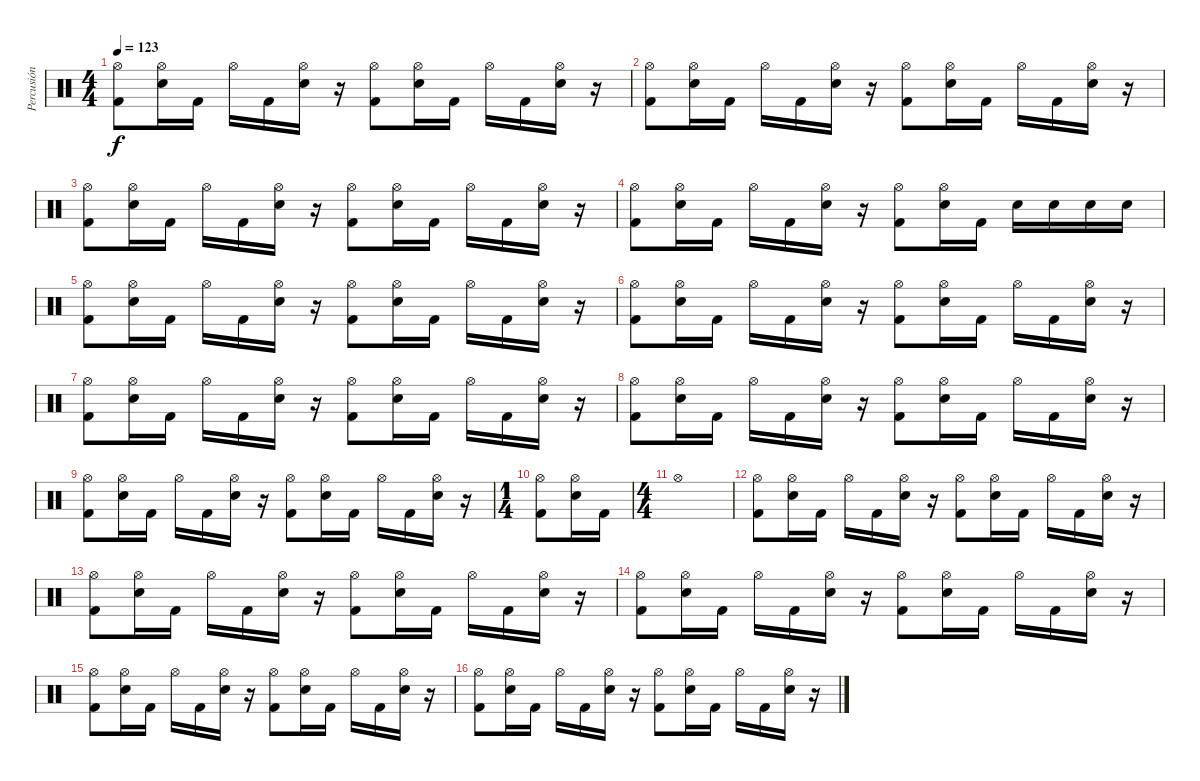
\track ("Percusión" "Percusión") {instrument percussion}
\staff {score}
\articulation defaults
\ts (4 4)
\tempo 123
\clef neutral
\ks c
("Hi-Hat (open)" "Kick (hit) 2").8{dy f} ("Hi-Hat (open)" "Snare (hit) 2").16 "Kick (hit) 2".16 "Hi-Hat (open)".16 "Kick (hit) 2".16 ("Hi-Hat (open)" "Snare (hit) 2").16 r.16 ("Hi-Hat (open)" "Kick (hit) 2").8 ("Hi-Hat (open)" "Snare (hit) 2").16 "Kick (hit) 2".16 "Hi-Hat (open)".16 "Kick (hit) 2".16 ("Hi-Hat (open)" "Snare (hit) 2").16 r.16 |
("Hi-Hat (open)" "Kick (hit) 2").8 ("Hi-Hat (open)" "Snare (hit) 2").16 "Kick (hit) 2".16 "Hi-Hat (open)".16 "Kick (hit) 2".16 ("Hi-Hat (open)" "Snare (hit) 2").16 r.16 ("Hi-Hat (open)" "Kick (hit) 2").8 ("Hi-Hat (open)" "Snare (hit) 2").16 "Kick (hit) 2".16 "Hi-Hat (open)".16 "Kick (hit) 2".16 ("Hi-Hat (open)" "Snare (hit) 2").16 r.16 |
("Hi-Hat (open)" "Kick (hit) 2").8 ("Hi-Hat (open)" "Snare (hit) 2").16 "Kick (hit) 2".16 "Hi-Hat (open)".16 "Kick (hit) 2".16 ("Hi-Hat (open)" "Snare (hit) 2").16 r.16 ("Hi-Hat (open)" "Kick (hit) 2").8 ("Hi-Hat (open)" "Snare (hit) 2").16 "Kick (hit) 2".16 "Hi-Hat (open)".16 "Kick (hit) 2".16 ("Hi-Hat (open)" "Snare (hit) 2").16 r.16 |
("Hi-Hat (open)" "Kick (hit) 2").8 ("Hi-Hat (open)" "Snare (hit) 2").16 "Kick (hit) 2".16 "Hi-Hat (open)".16 "Kick (hit) 2".16 ("Hi-Hat (open)" "Snare (hit) 2").16 r.16 ("Hi-Hat (open)" "Kick (hit) 2").8 ("Hi-Hat (open)" "Snare (hit) 2").16 "Kick (hit) 2".16 "Electric Snare (hit)".16 "Electric Snare (hit)".16 "Electric Snare (hit)".16 "Electric Snare (hit)".16 |
("Hi-Hat (open)" "Kick (hit) 2").8 ("Hi-Hat (open)" "Snare (hit) 2").16 "Kick (hit) 2".16 "Hi-Hat (open)".16 "Kick (hit) 2".16 ("Hi-Hat (open)" "Snare (hit) 2").16 r.16 ("Hi-Hat (open)" "Kick (hit) 2").8 ("Hi-Hat (open)" "Snare (hit) 2").16 "Kick (hit) 2".16 "Hi-Hat (open)".16 "Kick (hit) 2".16 ("Hi-Hat (open)" "Snare (hit) 2").16 r.16 |
("Hi-Hat (open)" "Kick (hit) 2").8 ("Hi-Hat (open)" "Snare (hit) 2").16 "Kick (hit) 2".16 "Hi-Hat (open)".16 "Kick (hit) 2".16 ("Hi-Hat (open)" "Snare (hit) 2").16 r.16 ("Hi-Hat (open)" "Kick (hit) 2").8 ("Hi-Hat (open)" "Snare (hit) 2").16 "Kick (hit) 2".16 "Hi-Hat (open)".16 "Kick (hit) 2".16 ("Hi-Hat (open)" "Snare (hit) 2").16 r.16 |
("Hi-Hat (open)" "Kick (hit) 2").8 ("Hi-Hat (open)" "Snare (hit) 2").16 "Kick (hit) 2".16 "Hi-Hat (open)".16 "Kick (hit) 2".16 ("Hi-Hat (open)" "Snare (hit) 2").16 r.16 ("Hi-Hat (open)" "Kick (hit) 2").8 ("Hi-Hat (open)" "Snare (hit) 2").16 "Kick (hit) 2".16 "Hi-Hat (open)".16 "Kick (hit) 2".16 ("Hi-Hat (open)" "Snare (hit) 2").16 r.16 |
("Hi-Hat (open)" "Kick (hit) 2").8 ("Hi-Hat (open)" "Snare (hit) 2").16 "Kick (hit) 2".16 "Hi-Hat (open)".16 "Kick (hit) 2".16 ("Hi-Hat (open)" "Snare (hit) 2").16 r.16 ("Hi-Hat (open)" "Kick (hit) 2").8 ("Hi-Hat (open)" "Snare (hit) 2").16 "Kick (hit) 2".16 "Hi-Hat (open)".16 "Kick (hit) 2".16 ("Hi-Hat (open)" "Snare (hit) 2").16 r.16 |
("Hi-Hat (open)" "Kick (hit) 2").8 ("Hi-Hat (open)" "Snare (hit) 2").16 "Kick (hit) 2".16 "Hi-Hat (open)".16 "Kick (hit) 2".16 ("Hi-Hat (open)" "Snare (hit) 2").16 r.16 ("Hi-Hat (open)" "Kick (hit) 2").8 ("Hi-Hat (open)" "Snare (hit) 2").16 "Kick (hit) 2".16 "Hi-Hat (open)".16 "Kick (hit) 2".16 ("Hi-Hat (open)" "Snare (hit) 2").16 r.16 |
\ts (1 4)
("Hi-Hat (open)" "Kick (hit) 2").8 ("Hi-Hat (open)" "Snare (hit) 2").16 "Kick (hit) 2".16 |
\ts (4 4)
"Hi-Hat (open)".1 |
("Hi-Hat (open)" "Kick (hit) 2").8 ("Hi-Hat (open)" "Snare (hit) 2").16 "Kick (hit) 2".16 "Hi-Hat (open)".16 "Kick (hit) 2".16 ("Hi-Hat (open)" "Snare (hit) 2").16 r.16 ("Hi-Hat (open)" "Kick (hit) 2").8 ("Hi-Hat (open)" "Snare (hit) 2").16 "Kick (hit) 2".16 "Hi-Hat (open)".16 "Kick (hit) 2".16 ("Hi-Hat (open)" "Snare (hit) 2").16 r.16 |
("Hi-Hat (open)" "Kick (hit) 2").8 ("Hi-Hat (open)" "Snare (hit) 2").16 "Kick (hit) 2".16 "Hi-Hat (open)".16 "Kick (hit) 2".16 ("Hi-Hat (open)" "Snare (hit) 2").16 r.16 ("Hi-Hat (open)" "Kick (hit) 2").8 ("Hi-Hat (open)" "Snare (hit) 2").16 "Kick (hit) 2".16 "Hi-Hat (open)".16 "Kick (hit) 2".16 ("Hi-Hat (open)" "Snare (hit) 2").16 r.16 |
("Hi-Hat (open)" "Kick (hit) 2").8 ("Hi-Hat (open)" "Snare (hit) 2").16 "Kick (hit) 2".16 "Hi-Hat (open)".16 "Kick (hit) 2".16 ("Hi-Hat (open)" "Snare (hit) 2").16 r.16 ("Hi-Hat (open)" "Kick (hit) 2").8 ("Hi-Hat (open)" "Snare (hit) 2").16 "Kick (hit) 2".16 "Hi-Hat (open)".16 "Kick (hit) 2".16 ("Hi-Hat (open)" "Snare (hit) 2").16 r.16 |
("Hi-Hat (open)" "Kick (hit) 2").8 ("Hi-Hat (open)" "Snare (hit) 2").16 "Kick (hit) 2".16 "Hi-Hat (open)".16 "Kick (hit) 2".16 ("Hi-Hat (open)" "Snare (hit) 2").16 r.16 ("Hi-Hat (open)" "Kick (hit) 2").8 ("Hi-Hat (open)" "Snare (hit) 2").16 "Kick (hit) 2".16 "Hi-Hat (open)".16 "Kick (hit) 2".16 ("Hi-Hat (open)" "Snare (hit) 2").16 r.16 |
("Hi-Hat (open)" "Kick (hit) 2").8 ("Hi-Hat (open)" "Snare (hit) 2").16 "Kick (hit) 2".16 "Hi-Hat (open)".16 "Kick (hit) 2".16 ("Hi-Hat (open)" "Snare (hit) 2").16 r.16 ("Hi-Hat (open)" "Kick (hit) 2").8 ("Hi-Hat (open)" "Snare (hit) 2").16 "Kick (hit) 2".16 "Hi-Hat (open)".16 "Kick (hit) 2".16 ("Hi-Hat (open)" "Snare (hit) 2").16 r.16
